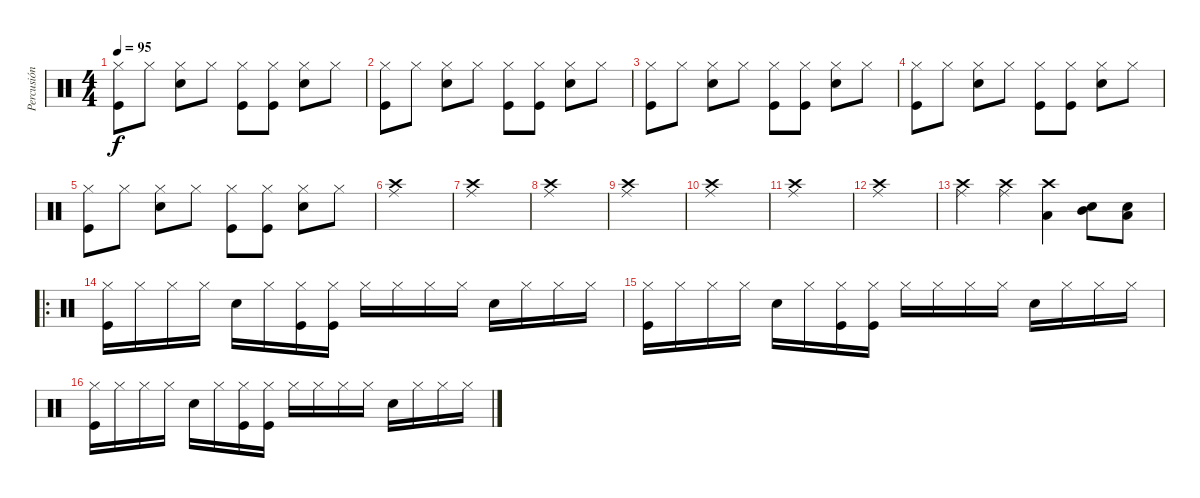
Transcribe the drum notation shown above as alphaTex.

\track ("Percusión" "Percusión") {instrument percussion}
\staff {score}
\articulation defaults
\ts (4 4)
\tempo 95
\clef neutral
\ks c
("Hi-Hat (closed)" "Kick (hit)").8{dy f} "Hi-Hat (closed)".8 ("Hi-Hat (closed)" "Snare (hit) 2").8 "Hi-Hat (closed)".8 ("Hi-Hat (closed)" "Kick (hit)").8 ("Hi-Hat (closed)" "Kick (hit)").8 ("Hi-Hat (closed)" "Snare (hit) 2").8 "Hi-Hat (closed)".8 |
("Hi-Hat (closed)" "Kick (hit)").8 "Hi-Hat (closed)".8 ("Hi-Hat (closed)" "Snare (hit) 2").8 "Hi-Hat (closed)".8 ("Hi-Hat (closed)" "Kick (hit)").8 ("Hi-Hat (closed)" "Kick (hit)").8 ("Hi-Hat (closed)" "Snare (hit) 2").8 "Hi-Hat (closed)".8 |
("Hi-Hat (closed)" "Kick (hit)").8 "Hi-Hat (closed)".8 ("Hi-Hat (closed)" "Snare (hit) 2").8 "Hi-Hat (closed)".8 ("Hi-Hat (closed)" "Kick (hit)").8 ("Hi-Hat (closed)" "Kick (hit)").8 ("Hi-Hat (closed)" "Snare (hit) 2").8 "Hi-Hat (closed)".8 |
("Hi-Hat (closed)" "Kick (hit)").8 "Hi-Hat (closed)".8 ("Hi-Hat (closed)" "Snare (hit) 2").8 "Hi-Hat (closed)".8 ("Hi-Hat (closed)" "Kick (hit)").8 ("Hi-Hat (closed)" "Kick (hit)").8 ("Hi-Hat (closed)" "Snare (hit) 2").8 "Hi-Hat (closed)".8 |
("Hi-Hat (closed)" "Kick (hit)").8 "Hi-Hat (closed)".8 ("Hi-Hat (closed)" "Snare (hit) 2").8 "Hi-Hat (closed)".8 ("Hi-Hat (closed)" "Kick (hit)").8 ("Hi-Hat (closed)" "Kick (hit)").8 ("Hi-Hat (closed)" "Snare (hit) 2").8 "Hi-Hat (closed)".8 |
("Crash high (hit)" "Ride (middle)").1 |
("Crash high (hit)" "Ride (middle)").1 |
("Crash high (hit)" "Ride (middle)").1 |
("Crash high (hit)" "Ride (middle)").1 |
("Crash high (hit)" "Ride (middle)").1 |
("Crash high (hit)" "Ride (middle)").1 |
("Crash high (hit)" "Ride (middle)").1 |
("Crash high (hit)" "Ride (middle)").4 ("Crash high (hit)" "Ride (middle)").4 ("Crash high (hit)" "Low Floor Tom (hit)").4 ("Snare (hit) 2" "Mid Tom (hit)").8 ("Snare (hit) 2" "Low Tom (hit)").8 |
\ro
("Hi-Hat (closed)" "Kick (hit)").16 "Hi-Hat (closed)".16 "Hi-Hat (closed)".16 "Hi-Hat (closed)".16 "Snare (hit) 2".16 "Hi-Hat (closed)".16 ("Hi-Hat (closed)" "Kick (hit)").16 ("Hi-Hat (closed)" "Kick (hit)").16 "Hi-Hat (closed)".16 "Hi-Hat (closed)".16 "Hi-Hat (closed)".16 "Hi-Hat (closed)".16 "Snare (hit) 2".16 "Hi-Hat (closed)".16 "Hi-Hat (closed)".16 "Hi-Hat (closed)".16 |
("Hi-Hat (closed)" "Kick (hit)").16 "Hi-Hat (closed)".16 "Hi-Hat (closed)".16 "Hi-Hat (closed)".16 "Snare (hit) 2".16 "Hi-Hat (closed)".16 ("Hi-Hat (closed)" "Kick (hit)").16 ("Hi-Hat (closed)" "Kick (hit)").16 "Hi-Hat (closed)".16 "Hi-Hat (closed)".16 "Hi-Hat (closed)".16 "Hi-Hat (closed)".16 "Snare (hit) 2".16 "Hi-Hat (closed)".16 "Hi-Hat (closed)".16 "Hi-Hat (closed)".16 |
("Hi-Hat (closed)" "Kick (hit)").16 "Hi-Hat (closed)".16 "Hi-Hat (closed)".16 "Hi-Hat (closed)".16 "Snare (hit) 2".16 "Hi-Hat (closed)".16 ("Hi-Hat (closed)" "Kick (hit)").16 ("Hi-Hat (closed)" "Kick (hit)").16 "Hi-Hat (closed)".16 "Hi-Hat (closed)".16 "Hi-Hat (closed)".16 "Hi-Hat (closed)".16 "Snare (hit) 2".16 "Hi-Hat (closed)".16 "Hi-Hat (closed)".16 "Hi-Hat (closed)".16
